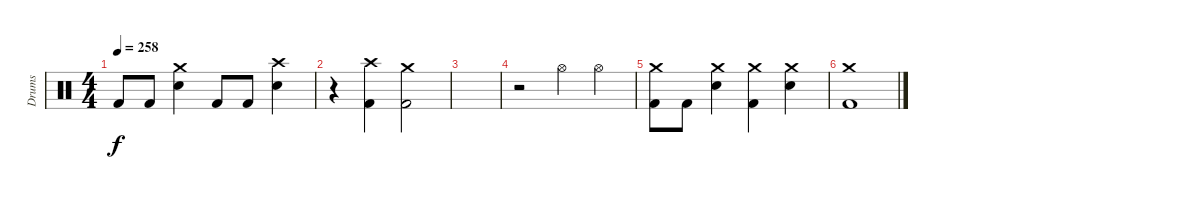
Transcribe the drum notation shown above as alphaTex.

\track ("Drums" "Drums") {instrument percussion}
\staff {score}
\articulation defaults
\ts (4 4)
\tempo 258
\clef neutral
\ks c "Kick (hit) 2".8{dy f} "Kick (hit) 2".8
("Crash medium (hit)" "Electric Snare (hit)").4 "Kick (hit) 2".8 "Kick (hit) 2".8 ("Crash high (hit)" "Electric Snare (hit)").4 |
r.4 ("Crash high (hit)" "Kick (hit) 2").4 ("Crash medium (hit)" "Kick (hit) 2").2 |
|
r.2 "Hi-Hat (open)".4 "Hi-Hat (open)".4 |
("Crash medium (hit)" "Kick (hit) 2").8 "Kick (hit) 2".8 ("Crash medium (hit)" "Electric Snare (hit)").4 ("Crash medium (hit)" "Kick (hit) 2").4 ("Crash medium (hit)" "Electric Snare (hit)").4 |
("Crash medium (hit)" "Kick (hit) 2").1
